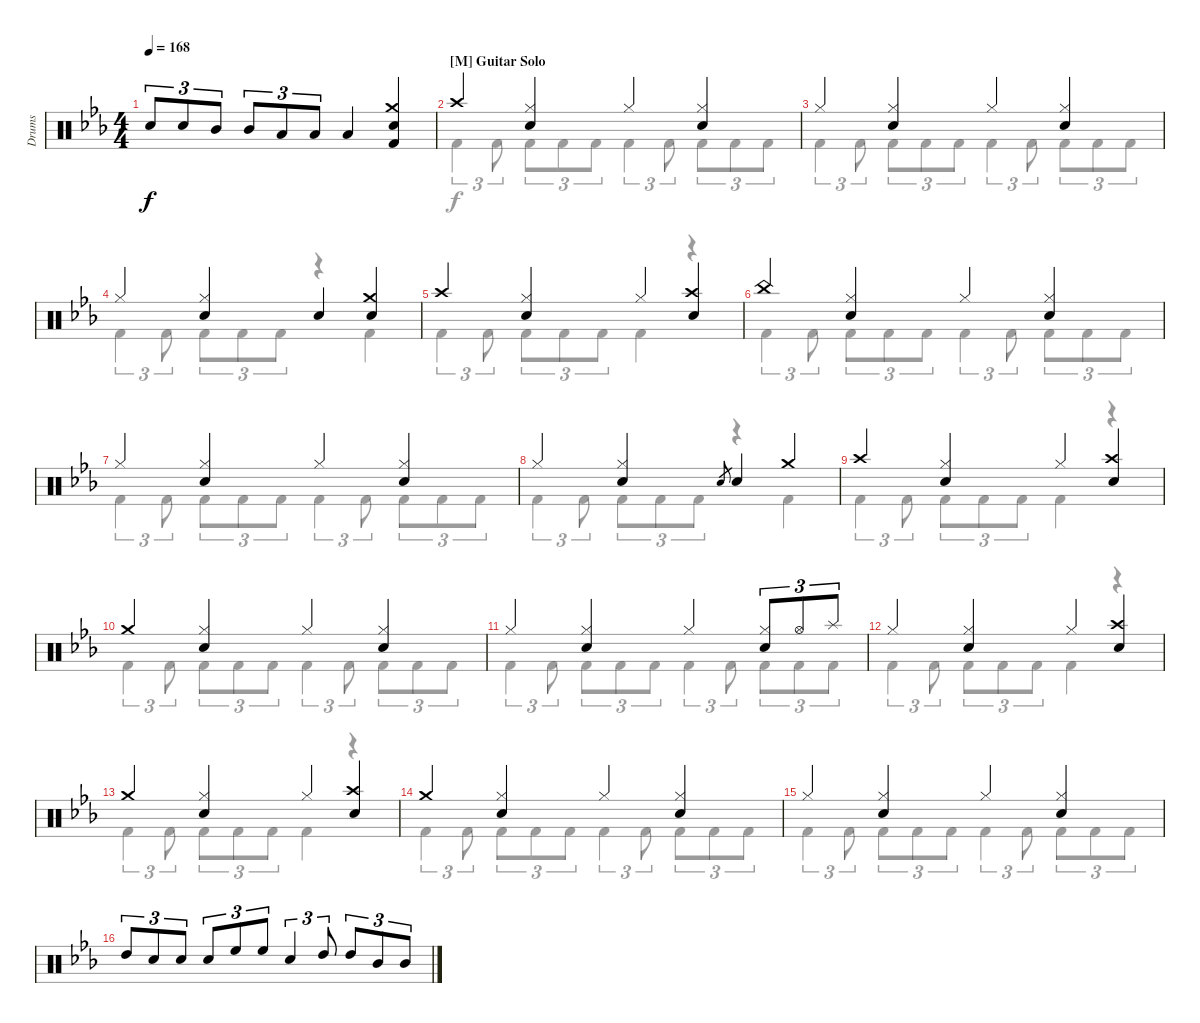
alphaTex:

\defaultSystemsLayout 4
\bracketExtendMode groupsimilarinstruments
\otherSystemsTrackNameOrientation horizontal
\track ("Drums" "Drums") {instrument percussion}
\staff {score}
\articulation defaults
\voice
\ts (4 4)
\tempo 168
\clef neutral
\ks eb "Snare (hit) 2"{acc forcenatural}.8{tu (3 2) dy f beam Up} "Snare (hit) 2"{acc forcenatural}.8{tu (3 2) beam Up} "Mid Tom (hit)"{acc forcenatural}.8{tu (3 2) beam Up} "Mid Tom (hit)"{acc forcenatural}.8{tu (3 2) beam Up} "Low Tom (hit)"{acc forcenatural}.8{tu (3 2) beam Up} "Low Tom (hit)"{acc forcenatural}.8{tu (3 2) beam Up} "Low Tom (hit)"{acc forcenatural}.4{beam Up}
("Crash medium (hit)"{acc forcenatural} "Snare (hit) 2"{acc forcenatural} "Kick (hit) 2"{acc forcenatural}).4{beam Up} |
\section ("M" "Guitar Solo")
"Crash high (hit)"{acc forcenatural}.4{beam Up} ("Hi-Hat (closed)"{acc forcenatural} "Snare (hit) 2"{acc forcenatural}).4{beam Up} "Hi-Hat (closed)"{acc forcenatural}.4{beam Up} ("Hi-Hat (closed)"{acc forcenatural} "Snare (hit) 2"{acc forcenatural}).4{beam Up} |
"Hi-Hat (closed)"{acc forcenatural}.4{beam Up} ("Hi-Hat (closed)"{acc forcenatural} "Snare (hit) 2"{acc forcenatural}).4{beam Up} "Hi-Hat (closed)"{acc forcenatural}.4{beam Up} ("Hi-Hat (closed)"{acc forcenatural} "Snare (hit) 2"{acc forcenatural}).4{beam Up} |
"Hi-Hat (closed)"{acc forcenatural}.4{beam Up} ("Hi-Hat (closed)"{acc forcenatural} "Snare (hit) 2"{acc forcenatural}).4{beam Up} "Snare (hit) 2"{acc forcenatural}.4{beam Up} ("Crash medium (hit)"{acc forcenatural} "Snare (hit) 2"{acc forcenatural}).4{beam Up} |
"Crash high (hit)"{acc forcenatural}.4{beam Up} ("Hi-Hat (closed)"{acc forcenatural} "Snare (hit) 2"{acc forcenatural}).4{beam Up} "Hi-Hat (closed)"{acc forcenatural}.4{beam Up} ("Snare (hit) 2"{acc forcenatural} "Crash high (hit)"{acc forcenatural}).4{beam Up} |
"China (hit)"{acc forcenatural}.4{beam Up} ("Snare (hit) 2"{acc forcenatural} "Hi-Hat (closed)"{acc forcenatural}).4{beam Up} "Hi-Hat (closed)"{acc forcenatural}.4{beam Up} ("Hi-Hat (closed)"{acc forcenatural} "Snare (hit) 2"{acc forcenatural}).4{beam Up} |
"Hi-Hat (closed)"{acc forcenatural}.4{beam Up} ("Hi-Hat (closed)"{acc forcenatural} "Snare (hit) 2"{acc forcenatural}).4{beam Up} "Hi-Hat (closed)"{acc forcenatural}.4{beam Up} ("Hi-Hat (closed)"{acc forcenatural} "Snare (hit) 2"{acc forcenatural}).4{beam Up} |
"Hi-Hat (closed)"{acc forcenatural}.4{beam Up} ("Hi-Hat (closed)"{acc forcenatural} "Snare (hit) 2"{acc forcenatural}).4{beam Up} "Snare (hit) 2"{acc forcenatural}.8{gr beam Up} "Snare (hit) 2"{acc forcenatural}.4{beam Up} "Crash medium (hit)"{acc forcenatural}.4{beam Up} |
"Crash high (hit)"{acc forcenatural}.4{beam Up} ("Hi-Hat (closed)"{acc forcenatural} "Snare (hit) 2"{acc forcenatural}).4{beam Up} "Hi-Hat (closed)"{acc forcenatural}.4{beam Up} ("Snare (hit) 2"{acc forcenatural} "Crash high (hit)"{acc forcenatural}).4{beam Up} |
"Crash medium (hit)"{acc forcenatural}.4{beam Up} ("Hi-Hat (closed)"{acc forcenatural} "Snare (hit) 2"{acc forcenatural}).4{beam Up} "Hi-Hat (closed)"{acc forcenatural}.4{beam Up} ("Hi-Hat (closed)"{acc forcenatural} "Snare (hit) 2"{acc forcenatural}).4{beam Up} |
"Hi-Hat (closed)"{acc forcenatural}.4{beam Up} ("Hi-Hat (closed)"{acc forcenatural} "Snare (hit) 2"{acc forcenatural}).4{beam Up} "Hi-Hat (closed)"{acc forcenatural}.4{beam Up} ("Hi-Hat (closed)"{acc forcenatural} "Snare (hit) 2"{acc forcenatural}).8{tu (3 2) beam Up} "Hi-Hat (open)"{acc forcenatural}.8{tu (3 2) beam Up} "Splash (hit)"{acc forcenatural}.8{tu (3 2) beam Up} |
"Hi-Hat (closed)"{acc forcenatural}.4{beam Up} ("Hi-Hat (closed)"{acc forcenatural} "Snare (hit) 2"{acc forcenatural}).4{beam Up} "Hi-Hat (closed)"{acc forcenatural}.4{beam Up} ("Crash high (hit)"{acc forcenatural} "Snare (hit) 2"{acc forcenatural}).4{beam Up} |
"Crash medium (hit)"{acc forcenatural}.4{beam Up} ("Hi-Hat (closed)"{acc forcenatural} "Snare (hit) 2"{acc forcenatural}).4{beam Up} "Hi-Hat (closed)"{acc forcenatural}.4{beam Up} ("Crash high (hit)"{acc forcenatural} "Snare (hit) 2"{acc forcenatural}).4{beam Up} |
"Crash medium (hit)"{acc forcenatural}.4{beam Up} ("Hi-Hat (closed)"{acc forcenatural} "Snare (hit) 2"{acc forcenatural}).4{beam Up} "Hi-Hat (closed)"{acc forcenatural}.4{beam Up} ("Hi-Hat (closed)"{acc forcenatural} "Snare (hit) 2"{acc forcenatural}).4{beam Up} |
"Hi-Hat (closed)"{acc forcenatural}.4{beam Up} ("Hi-Hat (closed)"{acc forcenatural} "Snare (hit) 2"{acc forcenatural}).4{beam Up} "Hi-Hat (closed)"{acc forcenatural}.4{beam Up} ("Hi-Hat (closed)"{acc forcenatural} "Snare (hit) 2"{acc forcenatural}).4{beam Up} |
"High Tom (hit)"{acc forcenatural}.8{tu (3 2) beam Up} "Snare (hit) 2"{acc forcenatural}.8{tu (3 2) beam Up} "Snare (hit) 2"{acc forcenatural}.8{tu (3 2) beam Up} "Snare (hit) 2"{acc forcenatural}.8{tu (3 2) beam Up} "High Floor Tom (hit)"{acc forcenatural}.8{tu (3 2) beam Up} "High Floor Tom (hit)"{acc forcenatural}.8{tu (3 2) beam Up} "Snare (hit) 2"{acc forcenatural}.4{tu (3 2) beam Up} "High Tom (hit)"{acc forcenatural}.8{tu (3 2) beam Up} "High Tom (hit)"{acc forcenatural}.8{tu (3 2) beam Up} "Mid Tom (hit)"{acc forcenatural}.8{tu (3 2) beam Up} "Mid Tom (hit)"{acc forcenatural}.8{tu (3 2) beam Up}
\voice
\clef neutral
\ottava regular
\simile none
\ks eb
|
"Kick (hit) 2"{acc forcenatural}.4{tu (3 2) beam Down} "Kick (hit) 2"{acc forcenatural}.8{tu (3 2) beam Down} "Kick (hit) 2"{acc forcenatural}.8{tu (3 2) beam Down} "Kick (hit) 2"{acc forcenatural}.8{tu (3 2) beam Down} "Kick (hit) 2"{acc forcenatural}.8{tu (3 2) beam Down} "Kick (hit) 2"{acc forcenatural}.4{tu (3 2) beam Down} "Kick (hit) 2"{acc forcenatural}.8{tu (3 2) beam Down} "Kick (hit) 2"{acc forcenatural}.8{tu (3 2) beam Down} "Kick (hit) 2"{acc forcenatural}.8{tu (3 2) beam Down} "Kick (hit) 2"{acc forcenatural}.8{tu (3 2) beam Down} |
"Kick (hit) 2"{acc forcenatural}.4{tu (3 2) beam Down} "Kick (hit) 2"{acc forcenatural}.8{tu (3 2) beam Down} "Kick (hit) 2"{acc forcenatural}.8{tu (3 2) beam Down} "Kick (hit) 2"{acc forcenatural}.8{tu (3 2) beam Down} "Kick (hit) 2"{acc forcenatural}.8{tu (3 2) beam Down} "Kick (hit) 2"{acc forcenatural}.4{tu (3 2) beam Down} "Kick (hit) 2"{acc forcenatural}.8{tu (3 2) beam Down} "Kick (hit) 2"{acc forcenatural}.8{tu (3 2) beam Down} "Kick (hit) 2"{acc forcenatural}.8{tu (3 2) beam Down} "Kick (hit) 2"{acc forcenatural}.8{tu (3 2) beam Down} |
"Kick (hit) 2"{acc forcenatural}.4{tu (3 2) beam Down} "Kick (hit) 2"{acc forcenatural}.8{tu (3 2) beam Down} "Kick (hit) 2"{acc forcenatural}.8{tu (3 2) beam Down} "Kick (hit) 2"{acc forcenatural}.8{tu (3 2) beam Down} "Kick (hit) 2"{acc forcenatural}.8{tu (3 2) beam Down} r.4{beam Down} "Kick (hit) 2"{acc forcenatural}.4{beam Down} |
"Kick (hit) 2"{acc forcenatural}.4{tu (3 2) beam Down} "Kick (hit) 2"{acc forcenatural}.8{tu (3 2) beam Down} "Kick (hit) 2"{acc forcenatural}.8{tu (3 2) beam Down} "Kick (hit) 2"{acc forcenatural}.8{tu (3 2) beam Down} "Kick (hit) 2"{acc forcenatural}.8{tu (3 2) beam Down} "Kick (hit) 2"{acc forcenatural}.4{beam Down} r.4{beam Down} |
"Kick (hit) 2"{acc forcenatural}.4{tu (3 2) beam Down} "Kick (hit) 2"{acc forcenatural}.8{tu (3 2) beam Down} "Kick (hit) 2"{acc forcenatural}.8{tu (3 2) beam Down} "Kick (hit) 2"{acc forcenatural}.8{tu (3 2) beam Down} "Kick (hit) 2"{acc forcenatural}.8{tu (3 2) beam Down} "Kick (hit) 2"{acc forcenatural}.4{tu (3 2) beam Down} "Kick (hit) 2"{acc forcenatural}.8{tu (3 2) beam Down} "Kick (hit) 2"{acc forcenatural}.8{tu (3 2) beam Down} "Kick (hit) 2"{acc forcenatural}.8{tu (3 2) beam Down} "Kick (hit) 2"{acc forcenatural}.8{tu (3 2) beam Down} |
"Kick (hit) 2"{acc forcenatural}.4{tu (3 2) beam Down} "Kick (hit) 2"{acc forcenatural}.8{tu (3 2) beam Down} "Kick (hit) 2"{acc forcenatural}.8{tu (3 2) beam Down} "Kick (hit) 2"{acc forcenatural}.8{tu (3 2) beam Down} "Kick (hit) 2"{acc forcenatural}.8{tu (3 2) beam Down} "Kick (hit) 2"{acc forcenatural}.4{tu (3 2) beam Down} "Kick (hit) 2"{acc forcenatural}.8{tu (3 2) beam Down} "Kick (hit) 2"{acc forcenatural}.8{tu (3 2) beam Down} "Kick (hit) 2"{acc forcenatural}.8{tu (3 2) beam Down} "Kick (hit) 2"{acc forcenatural}.8{tu (3 2) beam Down} |
"Kick (hit) 2"{acc forcenatural}.4{tu (3 2) beam Down} "Kick (hit) 2"{acc forcenatural}.8{tu (3 2) beam Down} "Kick (hit) 2"{acc forcenatural}.8{tu (3 2) beam Down} "Kick (hit) 2"{acc forcenatural}.8{tu (3 2) beam Down} "Kick (hit) 2"{acc forcenatural}.8{tu (3 2) beam Down} r.4{beam Down} "Kick (hit) 2"{acc forcenatural}.4{beam Down} |
"Kick (hit) 2"{acc forcenatural}.4{tu (3 2) beam Down} "Kick (hit) 2"{acc forcenatural}.8{tu (3 2) beam Down} "Kick (hit) 2"{acc forcenatural}.8{tu (3 2) beam Down} "Kick (hit) 2"{acc forcenatural}.8{tu (3 2) beam Down} "Kick (hit) 2"{acc forcenatural}.8{tu (3 2) beam Down} "Kick (hit) 2"{acc forcenatural}.4{beam Down} r.4{beam Down} |
"Kick (hit) 2"{acc forcenatural}.4{tu (3 2) beam Down} "Kick (hit) 2"{acc forcenatural}.8{tu (3 2) beam Down} "Kick (hit) 2"{acc forcenatural}.8{tu (3 2) beam Down} "Kick (hit) 2"{acc forcenatural}.8{tu (3 2) beam Down} "Kick (hit) 2"{acc forcenatural}.8{tu (3 2) beam Down} "Kick (hit) 2"{acc forcenatural}.4{tu (3 2) beam Down} "Kick (hit) 2"{acc forcenatural}.8{tu (3 2) beam Down} "Kick (hit) 2"{acc forcenatural}.8{tu (3 2) beam Down} "Kick (hit) 2"{acc forcenatural}.8{tu (3 2) beam Down} "Kick (hit) 2"{acc forcenatural}.8{tu (3 2) beam Down} |
"Kick (hit) 2"{acc forcenatural}.4{tu (3 2) beam Down} "Kick (hit) 2"{acc forcenatural}.8{tu (3 2) beam Down} "Kick (hit) 2"{acc forcenatural}.8{tu (3 2) beam Down} "Kick (hit) 2"{acc forcenatural}.8{tu (3 2) beam Down} "Kick (hit) 2"{acc forcenatural}.8{tu (3 2) beam Down} "Kick (hit) 2"{acc forcenatural}.4{tu (3 2) beam Down} "Kick (hit) 2"{acc forcenatural}.8{tu (3 2) beam Down} "Kick (hit) 2"{acc forcenatural}.8{tu (3 2) beam Down} "Kick (hit) 2"{acc forcenatural}.8{tu (3 2) beam Down} "Kick (hit) 2"{acc forcenatural}.8{tu (3 2) beam Down} |
"Kick (hit) 2"{acc forcenatural}.4{tu (3 2) beam Down} "Kick (hit) 2"{acc forcenatural}.8{tu (3 2) beam Down} "Kick (hit) 2"{acc forcenatural}.8{tu (3 2) beam Down} "Kick (hit) 2"{acc forcenatural}.8{tu (3 2) beam Down} "Kick (hit) 2"{acc forcenatural}.8{tu (3 2) beam Down} "Kick (hit) 2"{acc forcenatural}.4{beam Down} r.4{beam Down} |
"Kick (hit) 2"{acc forcenatural}.4{tu (3 2) beam Down} "Kick (hit) 2"{acc forcenatural}.8{tu (3 2) beam Down} "Kick (hit) 2"{acc forcenatural}.8{tu (3 2) beam Down} "Kick (hit) 2"{acc forcenatural}.8{tu (3 2) beam Down} "Kick (hit) 2"{acc forcenatural}.8{tu (3 2) beam Down} "Kick (hit) 2"{acc forcenatural}.4{beam Down} r.4{beam Down} |
"Kick (hit) 2"{acc forcenatural}.4{tu (3 2) beam Down} "Kick (hit) 2"{acc forcenatural}.8{tu (3 2) beam Down} "Kick (hit) 2"{acc forcenatural}.8{tu (3 2) beam Down} "Kick (hit) 2"{acc forcenatural}.8{tu (3 2) beam Down} "Kick (hit) 2"{acc forcenatural}.8{tu (3 2) beam Down} "Kick (hit) 2"{acc forcenatural}.4{tu (3 2) beam Down} "Kick (hit) 2"{acc forcenatural}.8{tu (3 2) beam Down} "Kick (hit) 2"{acc forcenatural}.8{tu (3 2) beam Down} "Kick (hit) 2"{acc forcenatural}.8{tu (3 2) beam Down} "Kick (hit) 2"{acc forcenatural}.8{tu (3 2) beam Down} |
"Kick (hit) 2"{acc forcenatural}.4{tu (3 2) beam Down} "Kick (hit) 2"{acc forcenatural}.8{tu (3 2) beam Down} "Kick (hit) 2"{acc forcenatural}.8{tu (3 2) beam Down} "Kick (hit) 2"{acc forcenatural}.8{tu (3 2) beam Down} "Kick (hit) 2"{acc forcenatural}.8{tu (3 2) beam Down} "Kick (hit) 2"{acc forcenatural}.4{tu (3 2) beam Down} "Kick (hit) 2"{acc forcenatural}.8{tu (3 2) beam Down} "Kick (hit) 2"{acc forcenatural}.8{tu (3 2) beam Down} "Kick (hit) 2"{acc forcenatural}.8{tu (3 2) beam Down} "Kick (hit) 2"{acc forcenatural}.8{tu (3 2) beam Down} |
